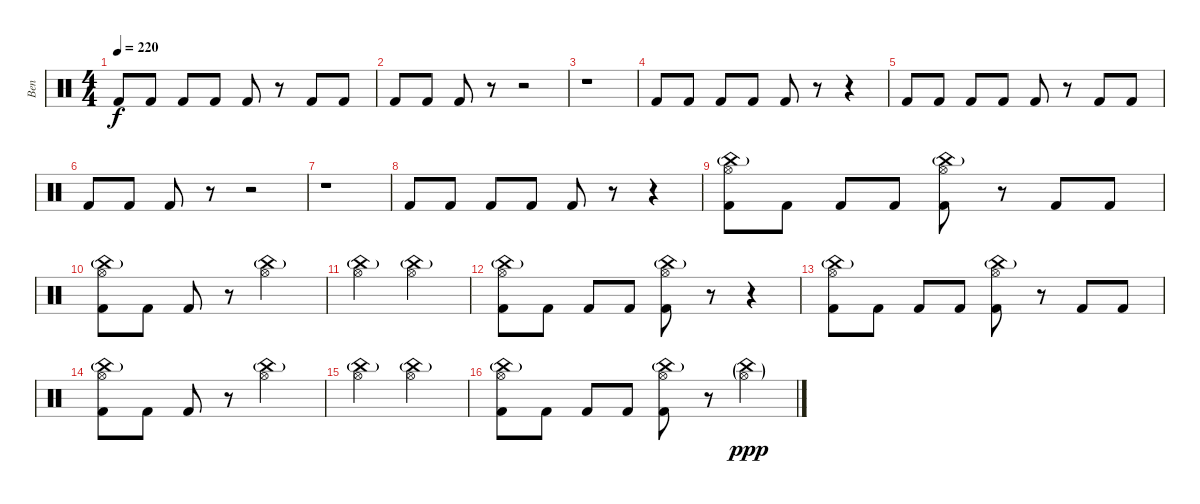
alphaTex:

\track ("Ben" "Ben") {instrument percussion}
\staff {score}
\articulation defaults
\ts (4 4)
\tempo 220
\clef neutral
\ks c "Kick (hit) 2".8{dy f} "Kick (hit) 2".8 "Kick (hit) 2".8 "Kick (hit) 2".8 "Kick (hit) 2".8
r.8 "Kick (hit) 2".8 "Kick (hit) 2".8 |
"Kick (hit) 2".8 "Kick (hit) 2".8 "Kick (hit) 2".8 r.8 r.2 |
r.1 |
"Kick (hit) 2".8 "Kick (hit) 2".8 "Kick (hit) 2".8 "Kick (hit) 2".8 "Kick (hit) 2".8 r.8 r.4 |
"Kick (hit) 2".8 "Kick (hit) 2".8 "Kick (hit) 2".8 "Kick (hit) 2".8 "Kick (hit) 2".8 r.8 "Kick (hit) 2".8 "Kick (hit) 2".8 |
"Kick (hit) 2".8 "Kick (hit) 2".8 "Kick (hit) 2".8 r.8 r.2 |
r.1 |
"Kick (hit) 2".8 "Kick (hit) 2".8 "Kick (hit) 2".8 "Kick (hit) 2".8 "Kick (hit) 2".8 r.8 r.4 |
("China (hit)"{g} "Hi-Hat (open)" "Kick (hit) 2").8 "Kick (hit) 2".8 "Kick (hit) 2".8 "Kick (hit) 2".8 ("China (hit)"{g} "Hi-Hat (open)" "Kick (hit) 2").8 r.8 "Kick (hit) 2".8 "Kick (hit) 2".8 |
("China (hit)"{g} "Hi-Hat (open)" "Kick (hit) 2").8 "Kick (hit) 2".8 "Kick (hit) 2".8 r.8 ("China (hit)"{g} "Hi-Hat (open)").2 |
("China (hit)"{g} "Hi-Hat (open)").2 ("China (hit)"{g} "Hi-Hat (open)").2 |
("China (hit)"{g} "Hi-Hat (open)" "Kick (hit) 2").8 "Kick (hit) 2".8 "Kick (hit) 2".8 "Kick (hit) 2".8 ("China (hit)"{g} "Hi-Hat (open)" "Kick (hit) 2").8 r.8 r.4 |
("China (hit)"{g} "Hi-Hat (open)" "Kick (hit) 2").8 "Kick (hit) 2".8 "Kick (hit) 2".8 "Kick (hit) 2".8 ("China (hit)"{g} "Hi-Hat (open)" "Kick (hit) 2").8 r.8 "Kick (hit) 2".8 "Kick (hit) 2".8 |
("China (hit)"{g} "Hi-Hat (open)" "Kick (hit) 2").8 "Kick (hit) 2".8 "Kick (hit) 2".8 r.8 ("China (hit)"{g} "Hi-Hat (open)").2 |
("China (hit)"{g} "Hi-Hat (open)").2 ("China (hit)"{g} "Hi-Hat (open)").2 |
("China (hit)"{g} "Hi-Hat (open)" "Kick (hit) 2").8 "Kick (hit) 2".8 "Kick (hit) 2".8 "Kick (hit) 2".8 ("China (hit)"{g} "Hi-Hat (open)" "Kick (hit) 2").8 r.8 ("China (hit)"{g} "Hi-Hat (open)"{g}).4{dy ppp}
